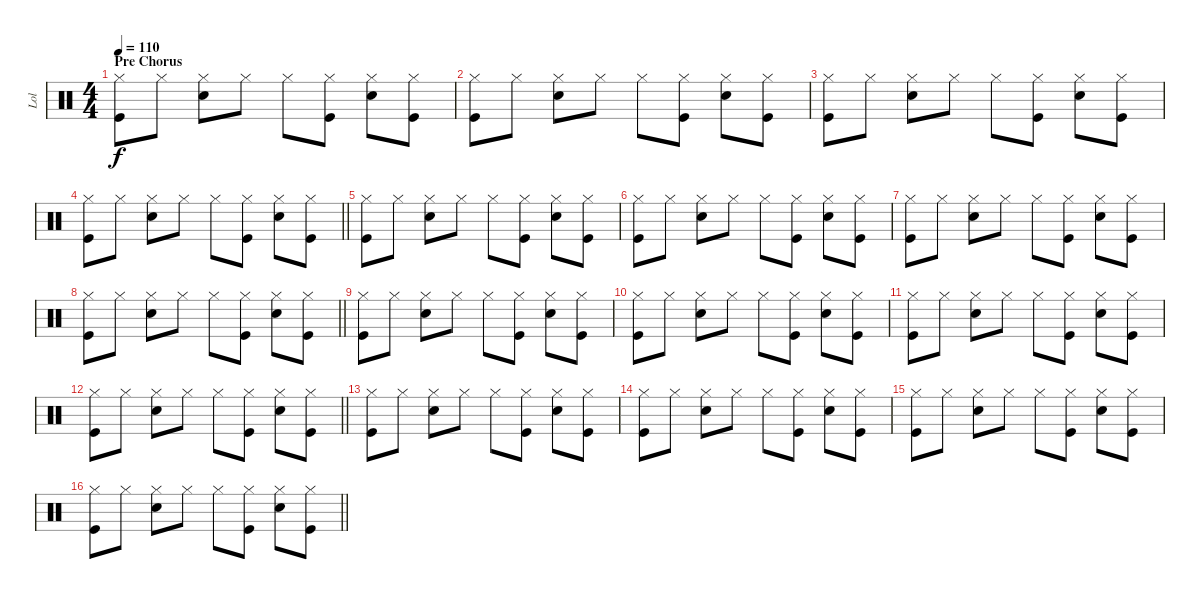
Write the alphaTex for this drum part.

\track ("Lol" "Lol") {instrument percussion}
\staff {score}
\articulation defaults
\ts (4 4)
\section ("" "Pre Chorus")
\tempo 110
\clef neutral
\ks c
("Hi-Hat (closed)" "Kick (hit)").8{dy f} "Hi-Hat (closed)".8 ("Hi-Hat (closed)" "Electric Snare (hit)").8 "Hi-Hat (closed)".8 "Hi-Hat (closed)".8 ("Hi-Hat (closed)" "Kick (hit)").8 ("Hi-Hat (closed)" "Electric Snare (hit)").8 ("Hi-Hat (closed)" "Kick (hit)").8 |
("Hi-Hat (closed)" "Kick (hit)").8 "Hi-Hat (closed)".8 ("Hi-Hat (closed)" "Electric Snare (hit)").8 "Hi-Hat (closed)".8 "Hi-Hat (closed)".8 ("Hi-Hat (closed)" "Kick (hit)").8 ("Hi-Hat (closed)" "Electric Snare (hit)").8 ("Hi-Hat (closed)" "Kick (hit)").8 |
("Hi-Hat (closed)" "Kick (hit)").8 "Hi-Hat (closed)".8 ("Hi-Hat (closed)" "Electric Snare (hit)").8 "Hi-Hat (closed)".8 "Hi-Hat (closed)".8 ("Hi-Hat (closed)" "Kick (hit)").8 ("Hi-Hat (closed)" "Electric Snare (hit)").8 ("Hi-Hat (closed)" "Kick (hit)").8 |
\barLineRight lightlight
("Hi-Hat (closed)" "Kick (hit)").8 "Hi-Hat (closed)".8 ("Hi-Hat (closed)" "Electric Snare (hit)").8 "Hi-Hat (closed)".8 "Hi-Hat (closed)".8 ("Hi-Hat (closed)" "Kick (hit)").8 ("Hi-Hat (closed)" "Electric Snare (hit)").8 ("Hi-Hat (closed)" "Kick (hit)").8 |
("Hi-Hat (closed)" "Kick (hit)").8 "Hi-Hat (closed)".8 ("Hi-Hat (closed)" "Electric Snare (hit)").8 "Hi-Hat (closed)".8 "Hi-Hat (closed)".8 ("Hi-Hat (closed)" "Kick (hit)").8 ("Hi-Hat (closed)" "Electric Snare (hit)").8 ("Hi-Hat (closed)" "Kick (hit)").8 |
("Hi-Hat (closed)" "Kick (hit)").8 "Hi-Hat (closed)".8 ("Hi-Hat (closed)" "Electric Snare (hit)").8 "Hi-Hat (closed)".8 "Hi-Hat (closed)".8 ("Hi-Hat (closed)" "Kick (hit)").8 ("Hi-Hat (closed)" "Electric Snare (hit)").8 ("Hi-Hat (closed)" "Kick (hit)").8 |
("Hi-Hat (closed)" "Kick (hit)").8 "Hi-Hat (closed)".8 ("Hi-Hat (closed)" "Electric Snare (hit)").8 "Hi-Hat (closed)".8 "Hi-Hat (closed)".8 ("Hi-Hat (closed)" "Kick (hit)").8 ("Hi-Hat (closed)" "Electric Snare (hit)").8 ("Hi-Hat (closed)" "Kick (hit)").8 |
\barLineRight lightlight
("Hi-Hat (closed)" "Kick (hit)").8 "Hi-Hat (closed)".8 ("Hi-Hat (closed)" "Electric Snare (hit)").8 "Hi-Hat (closed)".8 "Hi-Hat (closed)".8 ("Hi-Hat (closed)" "Kick (hit)").8 ("Hi-Hat (closed)" "Electric Snare (hit)").8 ("Hi-Hat (closed)" "Kick (hit)").8 |
("Hi-Hat (closed)" "Kick (hit)").8 "Hi-Hat (closed)".8 ("Hi-Hat (closed)" "Electric Snare (hit)").8 "Hi-Hat (closed)".8 "Hi-Hat (closed)".8 ("Hi-Hat (closed)" "Kick (hit)").8 ("Hi-Hat (closed)" "Electric Snare (hit)").8 ("Hi-Hat (closed)" "Kick (hit)").8 |
("Hi-Hat (closed)" "Kick (hit)").8 "Hi-Hat (closed)".8 ("Hi-Hat (closed)" "Electric Snare (hit)").8 "Hi-Hat (closed)".8 "Hi-Hat (closed)".8 ("Hi-Hat (closed)" "Kick (hit)").8 ("Hi-Hat (closed)" "Electric Snare (hit)").8 ("Hi-Hat (closed)" "Kick (hit)").8 |
("Hi-Hat (closed)" "Kick (hit)").8 "Hi-Hat (closed)".8 ("Hi-Hat (closed)" "Electric Snare (hit)").8 "Hi-Hat (closed)".8 "Hi-Hat (closed)".8 ("Hi-Hat (closed)" "Kick (hit)").8 ("Hi-Hat (closed)" "Electric Snare (hit)").8 ("Hi-Hat (closed)" "Kick (hit)").8 |
\barLineRight lightlight
("Hi-Hat (closed)" "Kick (hit)").8 "Hi-Hat (closed)".8 ("Hi-Hat (closed)" "Electric Snare (hit)").8 "Hi-Hat (closed)".8 "Hi-Hat (closed)".8 ("Hi-Hat (closed)" "Kick (hit)").8 ("Hi-Hat (closed)" "Electric Snare (hit)").8 ("Hi-Hat (closed)" "Kick (hit)").8 |
("Hi-Hat (closed)" "Kick (hit)").8 "Hi-Hat (closed)".8 ("Hi-Hat (closed)" "Electric Snare (hit)").8 "Hi-Hat (closed)".8 "Hi-Hat (closed)".8 ("Hi-Hat (closed)" "Kick (hit)").8 ("Hi-Hat (closed)" "Electric Snare (hit)").8 ("Hi-Hat (closed)" "Kick (hit)").8 |
("Hi-Hat (closed)" "Kick (hit)").8 "Hi-Hat (closed)".8 ("Hi-Hat (closed)" "Electric Snare (hit)").8 "Hi-Hat (closed)".8 "Hi-Hat (closed)".8 ("Hi-Hat (closed)" "Kick (hit)").8 ("Hi-Hat (closed)" "Electric Snare (hit)").8 ("Hi-Hat (closed)" "Kick (hit)").8 |
("Hi-Hat (closed)" "Kick (hit)").8 "Hi-Hat (closed)".8 ("Hi-Hat (closed)" "Electric Snare (hit)").8 "Hi-Hat (closed)".8 "Hi-Hat (closed)".8 ("Hi-Hat (closed)" "Kick (hit)").8 ("Hi-Hat (closed)" "Electric Snare (hit)").8 ("Hi-Hat (closed)" "Kick (hit)").8 |
\barLineRight lightlight
("Hi-Hat (closed)" "Kick (hit)").8 "Hi-Hat (closed)".8 ("Hi-Hat (closed)" "Electric Snare (hit)").8 "Hi-Hat (closed)".8 "Hi-Hat (closed)".8 ("Hi-Hat (closed)" "Kick (hit)").8 ("Hi-Hat (closed)" "Electric Snare (hit)").8 ("Hi-Hat (closed)" "Kick (hit)").8
